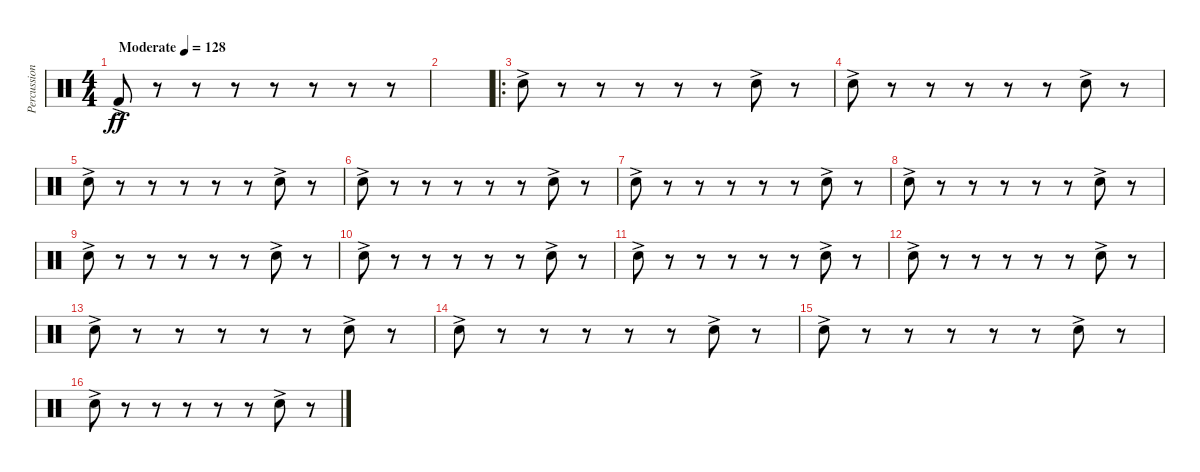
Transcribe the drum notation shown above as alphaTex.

\track ("Percussion" "Percussion") {instrument percussion}
\staff {score}
\articulation defaults
\ts (4 4)
\tempo (128 "Moderate")
\clef neutral
\ks c "Kick (hit) 2"{ac}.8{dy ff}
r.8 r.8 r.8 r.8 r.8 r.8 r.8 |
|
\ro "Snare (hit) 2"{ac}.8
r.8 r.8 r.8 r.8 r.8 "Snare (hit) 2"{ac}.8 r.8 |
"Snare (hit) 2"{ac}.8 r.8 r.8 r.8 r.8 r.8 "Snare (hit) 2"{ac}.8 r.8 |
"Snare (hit) 2"{ac}.8 r.8 r.8 r.8 r.8 r.8 "Snare (hit) 2"{ac}.8 r.8 |
"Snare (hit) 2"{ac}.8 r.8 r.8 r.8 r.8 r.8 "Snare (hit) 2"{ac}.8 r.8 |
"Snare (hit) 2"{ac}.8 r.8 r.8 r.8 r.8 r.8 "Snare (hit) 2"{ac}.8 r.8 |
"Snare (hit) 2"{ac}.8 r.8 r.8 r.8 r.8 r.8 "Snare (hit) 2"{ac}.8 r.8 |
"Snare (hit) 2"{ac}.8 r.8 r.8 r.8 r.8 r.8 "Snare (hit) 2"{ac}.8 r.8 |
"Snare (hit) 2"{ac}.8 r.8 r.8 r.8 r.8 r.8 "Snare (hit) 2"{ac}.8 r.8 |
"Snare (hit) 2"{ac}.8 r.8 r.8 r.8 r.8 r.8 "Snare (hit) 2"{ac}.8 r.8 |
"Snare (hit) 2"{ac}.8 r.8 r.8 r.8 r.8 r.8 "Snare (hit) 2"{ac}.8 r.8 |
"Snare (hit) 2"{ac}.8 r.8 r.8 r.8 r.8 r.8 "Snare (hit) 2"{ac}.8 r.8 |
"Snare (hit) 2"{ac}.8 r.8 r.8 r.8 r.8 r.8 "Snare (hit) 2"{ac}.8 r.8 |
"Snare (hit) 2"{ac}.8 r.8 r.8 r.8 r.8 r.8 "Snare (hit) 2"{ac}.8 r.8 |
"Snare (hit) 2"{ac}.8 r.8 r.8 r.8 r.8 r.8 "Snare (hit) 2"{ac}.8 r.8
